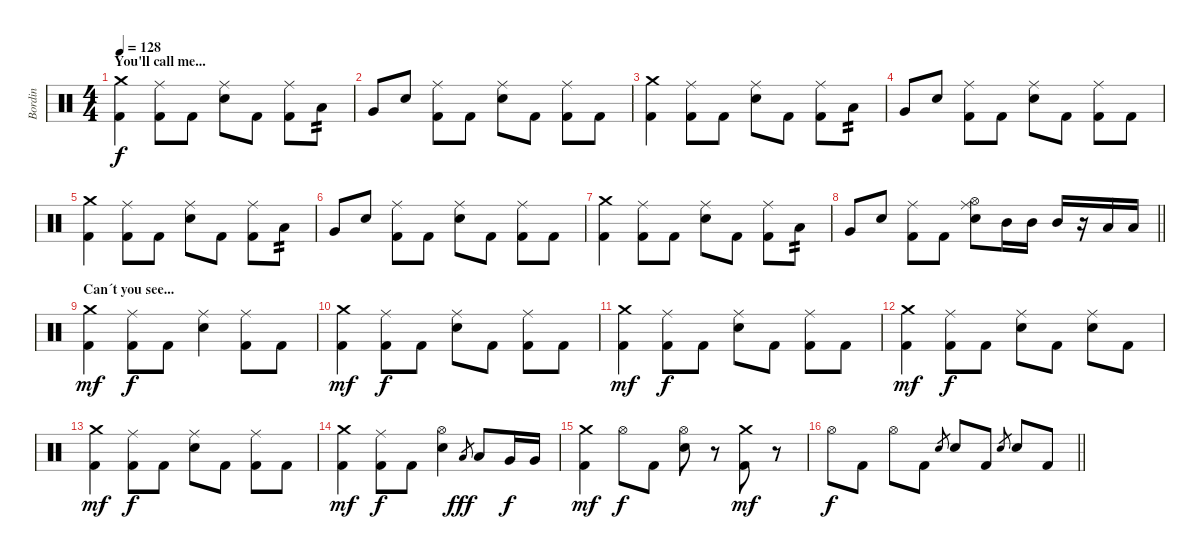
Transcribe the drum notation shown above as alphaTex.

\track ("Bordin" "Bordin") {instrument percussion}
\staff {score}
\articulation defaults
\ts (4 4)
\section ("" "You'll call me...")
\tempo 128
\clef neutral
\ks c
("Crash medium (hit)" "Kick (hit) 2").4{dy f} ("Ride (middle)" "Kick (hit) 2").8 "Kick (hit) 2".8 ("Ride (middle)" "Electric Snare (hit)").8 "Kick (hit) 2".8 ("Ride (middle)" "Kick (hit) 2").8 "Low Tom (hit)".8{tp 2} |
"Very Low Tom (hit)".8 "Electric Snare (hit)".8 ("Ride (middle)" "Kick (hit) 2").8 "Kick (hit) 2".8 ("Ride (middle)" "Electric Snare (hit)").8 "Kick (hit) 2".8 ("Ride (middle)" "Kick (hit) 2").8 "Kick (hit) 2".8 |
("Crash medium (hit)" "Kick (hit) 2").4 ("Ride (middle)" "Kick (hit) 2").8 "Kick (hit) 2".8 ("Ride (middle)" "Electric Snare (hit)").8 "Kick (hit) 2".8 ("Ride (middle)" "Kick (hit) 2").8 "Low Tom (hit)".8{tp 2} |
"Very Low Tom (hit)".8 "Electric Snare (hit)".8 ("Ride (middle)" "Kick (hit) 2").8 "Kick (hit) 2".8 ("Ride (middle)" "Electric Snare (hit)").8 "Kick (hit) 2".8 ("Ride (middle)" "Kick (hit) 2").8 "Kick (hit) 2".8 |
("Crash medium (hit)" "Kick (hit) 2").4 ("Ride (middle)" "Kick (hit) 2").8 "Kick (hit) 2".8 ("Ride (middle)" "Electric Snare (hit)").8 "Kick (hit) 2".8 ("Ride (middle)" "Kick (hit) 2").8 "Low Tom (hit)".8{tp 2} |
"Very Low Tom (hit)".8 "Electric Snare (hit)".8 ("Ride (middle)" "Kick (hit) 2").8 "Kick (hit) 2".8 ("Ride (middle)" "Electric Snare (hit)").8 "Kick (hit) 2".8 ("Ride (middle)" "Kick (hit) 2").8 "Kick (hit) 2".8 |
("Crash medium (hit)" "Kick (hit) 2").4 ("Ride (middle)" "Kick (hit) 2").8 "Kick (hit) 2".8 ("Ride (middle)" "Electric Snare (hit)").8 "Kick (hit) 2".8 ("Ride (middle)" "Kick (hit) 2").8 "Low Tom (hit)".8{tp 2} |
\barLineRight lightlight "Very Low Tom (hit)".8 "Electric Snare (hit)".8
("Ride (middle)" "Kick (hit) 2").8 "Kick (hit) 2".8 ("Ride (middle)" "Hi-Hat (open)" "Electric Snare (hit)").8 "Mid Tom (hit)".16 "Mid Tom (hit)".16 "Mid Tom (hit)".16 r.16 "Low Tom (hit)".16 "Low Tom (hit)".16 |
\section ("" "Can´t you see...")
("Crash medium (hit)" "Kick (hit) 2").4{dy mf} ("Ride (middle)" "Kick (hit) 2").8{dy f} "Kick (hit) 2".8 ("Ride (middle)" "Electric Snare (hit)").4 ("Ride (middle)" "Kick (hit) 2").8 "Kick (hit) 2".8 |
("Crash medium (hit)" "Kick (hit) 2").4{dy mf} ("Ride (middle)" "Kick (hit) 2").8{dy f} "Kick (hit) 2".8 ("Ride (middle)" "Electric Snare (hit)").8 "Kick (hit) 2".8 ("Ride (middle)" "Kick (hit) 2").8 "Kick (hit) 2".8 |
("Crash medium (hit)" "Kick (hit) 2").4{dy mf} ("Ride (middle)" "Kick (hit) 2").8{dy f} "Kick (hit) 2".8 ("Ride (middle)" "Electric Snare (hit)").8 "Kick (hit) 2".8 ("Ride (middle)" "Kick (hit) 2").8 "Kick (hit) 2".8 |
("Crash medium (hit)" "Kick (hit) 2").4{dy mf} ("Ride (middle)" "Kick (hit) 2").8{dy f} "Kick (hit) 2".8 ("Ride (middle)" "Electric Snare (hit)").8 "Kick (hit) 2".8 ("Ride (middle)" "Electric Snare (hit)").8 "Kick (hit) 2".8 |
("Crash medium (hit)" "Kick (hit) 2").4{dy mf} ("Ride (middle)" "Kick (hit) 2").8{dy f} "Kick (hit) 2".8 ("Ride (middle)" "Electric Snare (hit)").8 "Kick (hit) 2".8 ("Ride (middle)" "Kick (hit) 2").8 "Kick (hit) 2".8 |
("Crash medium (hit)" "Kick (hit) 2").4{dy mf} ("Ride (middle)" "Kick (hit) 2").8{dy f} "Kick (hit) 2".8 ("Hi-Hat (open)" "Electric Snare (hit)").4 "Low Tom (hit)".8{gr dy fff} "Low Tom (hit)".8 "Very Low Tom (hit)".16{dy f} "Very Low Tom (hit)".16 |
("Crash medium (hit)" "Kick (hit) 2").4{dy mf} "Hi-Hat (open)".8{dy f} "Kick (hit) 2".8 ("Hi-Hat (open)" "Electric Snare (hit)").8 r.8 ("Crash medium (hit)" "Kick (hit) 2").8{dy mf} r.8 |
\barLineRight lightlight "Hi-Hat (open)".8{dy f} "Kick (hit) 2".8 "Hi-Hat (open)".8 "Kick (hit) 2".8 "Electric Snare (hit)".8{gr} "Electric Snare (hit)".8 "Kick (hit) 2".8 "Electric Snare (hit)".8{gr} "Electric Snare (hit)".8 "Kick (hit) 2".8
